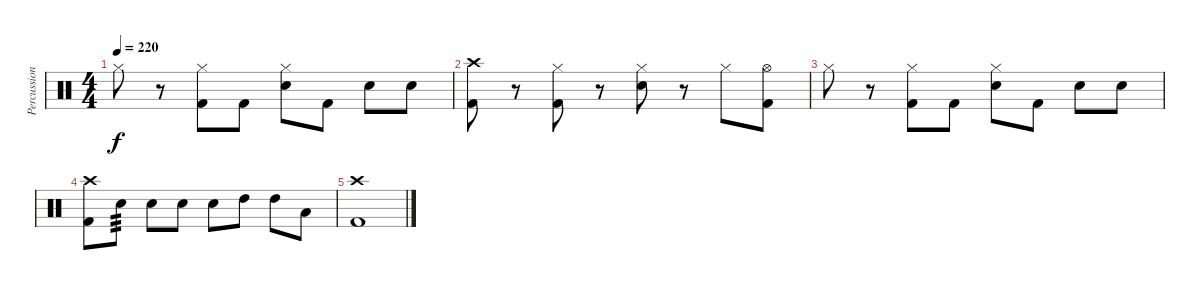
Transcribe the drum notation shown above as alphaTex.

\track ("Percussion" "Percussion") {instrument percussion}
\staff {score}
\articulation defaults
\ts (4 4)
\tempo 220
\clef neutral
\ks c "Hi-Hat (closed)".8{dy f}
r.8 ("Hi-Hat (closed)" "Kick (hit) 2").8 "Kick (hit) 2".8 ("Hi-Hat (closed)" "Electric Snare (hit)").8 "Kick (hit) 2".8 "Electric Snare (hit)".8 "Electric Snare (hit)".8 |
("Crash high (hit)" "Kick (hit) 2").8 r.8 ("Hi-Hat (closed)" "Kick (hit) 2").8 r.8 ("Hi-Hat (closed)" "Electric Snare (hit)").8 r.8 "Hi-Hat (closed)".8 ("Hi-Hat (open)" "Kick (hit) 2").8 |
"Hi-Hat (closed)".8 r.8 ("Hi-Hat (closed)" "Kick (hit) 2").8 "Kick (hit) 2".8 ("Hi-Hat (closed)" "Electric Snare (hit)").8 "Kick (hit) 2".8 "Electric Snare (hit)".8 "Electric Snare (hit)".8 |
("Crash high (hit)" "Kick (hit) 2").8 "Electric Snare (hit)".8{tp 3} "Electric Snare (hit)".8 "Electric Snare (hit)".8 "Electric Snare (hit)".8 "High Tom (hit)".8 "High Tom (hit)".8 "Low Tom (hit)".8 |
("Crash high (hit)" "Kick (hit) 2").1
